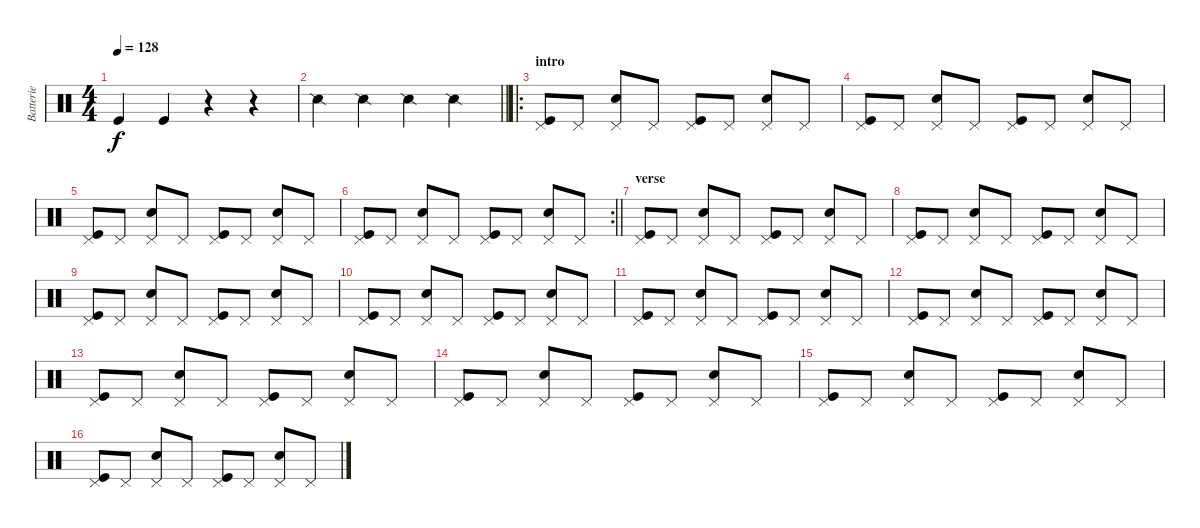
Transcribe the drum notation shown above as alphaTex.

\track ("Batterie" "Batterie") {instrument percussion}
\staff {score}
\articulation defaults
\ts (4 4)
\tempo 128
\clef neutral
\ks c "Kick (hit)".4{dy f} "Kick (hit)".4
r.4 r.4 |
\barLineRight lightlight "Snare (side stick) 2".4 "Snare (side stick) 2".4 "Snare (side stick) 2".4 "Snare (side stick) 2".4
|
\ro
\section ("" "intro")
("Pedal Hi-Hat (hit)" "Kick (hit)").8 "Pedal Hi-Hat (hit)".8 ("Pedal Hi-Hat (hit)" "Snare (hit) 2").8 "Pedal Hi-Hat (hit)".8 ("Pedal Hi-Hat (hit)" "Kick (hit)").8 "Pedal Hi-Hat (hit)".8 ("Pedal Hi-Hat (hit)" "Snare (hit) 2").8 "Pedal Hi-Hat (hit)".8 |
("Pedal Hi-Hat (hit)" "Kick (hit)").8 "Pedal Hi-Hat (hit)".8 ("Pedal Hi-Hat (hit)" "Snare (hit) 2").8 "Pedal Hi-Hat (hit)".8 ("Pedal Hi-Hat (hit)" "Kick (hit)").8 "Pedal Hi-Hat (hit)".8 ("Pedal Hi-Hat (hit)" "Snare (hit) 2").8 "Pedal Hi-Hat (hit)".8 |
("Pedal Hi-Hat (hit)" "Kick (hit)").8 "Pedal Hi-Hat (hit)".8 ("Pedal Hi-Hat (hit)" "Snare (hit) 2").8 "Pedal Hi-Hat (hit)".8 ("Pedal Hi-Hat (hit)" "Kick (hit)").8 "Pedal Hi-Hat (hit)".8 ("Pedal Hi-Hat (hit)" "Snare (hit) 2").8 "Pedal Hi-Hat (hit)".8 |
\rc 2
\barLineRight lightlight
("Pedal Hi-Hat (hit)" "Kick (hit)").8 "Pedal Hi-Hat (hit)".8 ("Pedal Hi-Hat (hit)" "Snare (hit) 2").8 "Pedal Hi-Hat (hit)".8 ("Pedal Hi-Hat (hit)" "Kick (hit)").8 "Pedal Hi-Hat (hit)".8 ("Pedal Hi-Hat (hit)" "Snare (hit) 2").8 "Pedal Hi-Hat (hit)".8 |
\section ("" "verse")
("Pedal Hi-Hat (hit)" "Kick (hit)").8 "Pedal Hi-Hat (hit)".8 ("Pedal Hi-Hat (hit)" "Snare (hit) 2").8 "Pedal Hi-Hat (hit)".8 ("Pedal Hi-Hat (hit)" "Kick (hit)").8 "Pedal Hi-Hat (hit)".8 ("Pedal Hi-Hat (hit)" "Snare (hit) 2").8 "Pedal Hi-Hat (hit)".8 |
("Pedal Hi-Hat (hit)" "Kick (hit)").8 "Pedal Hi-Hat (hit)".8 ("Pedal Hi-Hat (hit)" "Snare (hit) 2").8 "Pedal Hi-Hat (hit)".8 ("Pedal Hi-Hat (hit)" "Kick (hit)").8 "Pedal Hi-Hat (hit)".8 ("Pedal Hi-Hat (hit)" "Snare (hit) 2").8 "Pedal Hi-Hat (hit)".8 |
("Pedal Hi-Hat (hit)" "Kick (hit)").8 "Pedal Hi-Hat (hit)".8 ("Pedal Hi-Hat (hit)" "Snare (hit) 2").8 "Pedal Hi-Hat (hit)".8 ("Pedal Hi-Hat (hit)" "Kick (hit)").8 "Pedal Hi-Hat (hit)".8 ("Pedal Hi-Hat (hit)" "Snare (hit) 2").8 "Pedal Hi-Hat (hit)".8 |
("Pedal Hi-Hat (hit)" "Kick (hit)").8 "Pedal Hi-Hat (hit)".8 ("Pedal Hi-Hat (hit)" "Snare (hit) 2").8 "Pedal Hi-Hat (hit)".8 ("Pedal Hi-Hat (hit)" "Kick (hit)").8 "Pedal Hi-Hat (hit)".8 ("Pedal Hi-Hat (hit)" "Snare (hit) 2").8 "Pedal Hi-Hat (hit)".8 |
("Pedal Hi-Hat (hit)" "Kick (hit)").8 "Pedal Hi-Hat (hit)".8 ("Pedal Hi-Hat (hit)" "Snare (hit) 2").8 "Pedal Hi-Hat (hit)".8 ("Pedal Hi-Hat (hit)" "Kick (hit)").8 "Pedal Hi-Hat (hit)".8 ("Pedal Hi-Hat (hit)" "Snare (hit) 2").8 "Pedal Hi-Hat (hit)".8 |
("Pedal Hi-Hat (hit)" "Kick (hit)").8 "Pedal Hi-Hat (hit)".8 ("Pedal Hi-Hat (hit)" "Snare (hit) 2").8 "Pedal Hi-Hat (hit)".8 ("Pedal Hi-Hat (hit)" "Kick (hit)").8 "Pedal Hi-Hat (hit)".8 ("Pedal Hi-Hat (hit)" "Snare (hit) 2").8 "Pedal Hi-Hat (hit)".8 |
("Pedal Hi-Hat (hit)" "Kick (hit)").8 "Pedal Hi-Hat (hit)".8 ("Pedal Hi-Hat (hit)" "Snare (hit) 2").8 "Pedal Hi-Hat (hit)".8 ("Pedal Hi-Hat (hit)" "Kick (hit)").8 "Pedal Hi-Hat (hit)".8 ("Pedal Hi-Hat (hit)" "Snare (hit) 2").8 "Pedal Hi-Hat (hit)".8 |
("Pedal Hi-Hat (hit)" "Kick (hit)").8 "Pedal Hi-Hat (hit)".8 ("Pedal Hi-Hat (hit)" "Snare (hit) 2").8 "Pedal Hi-Hat (hit)".8 ("Pedal Hi-Hat (hit)" "Kick (hit)").8 "Pedal Hi-Hat (hit)".8 ("Pedal Hi-Hat (hit)" "Snare (hit) 2").8 "Pedal Hi-Hat (hit)".8 |
("Pedal Hi-Hat (hit)" "Kick (hit)").8 "Pedal Hi-Hat (hit)".8 ("Pedal Hi-Hat (hit)" "Snare (hit) 2").8 "Pedal Hi-Hat (hit)".8 ("Pedal Hi-Hat (hit)" "Kick (hit)").8 "Pedal Hi-Hat (hit)".8 ("Pedal Hi-Hat (hit)" "Snare (hit) 2").8 "Pedal Hi-Hat (hit)".8 |
("Pedal Hi-Hat (hit)" "Kick (hit)").8 "Pedal Hi-Hat (hit)".8 ("Pedal Hi-Hat (hit)" "Snare (hit) 2").8 "Pedal Hi-Hat (hit)".8 ("Pedal Hi-Hat (hit)" "Kick (hit)").8 "Pedal Hi-Hat (hit)".8 ("Pedal Hi-Hat (hit)" "Snare (hit) 2").8 "Pedal Hi-Hat (hit)".8
